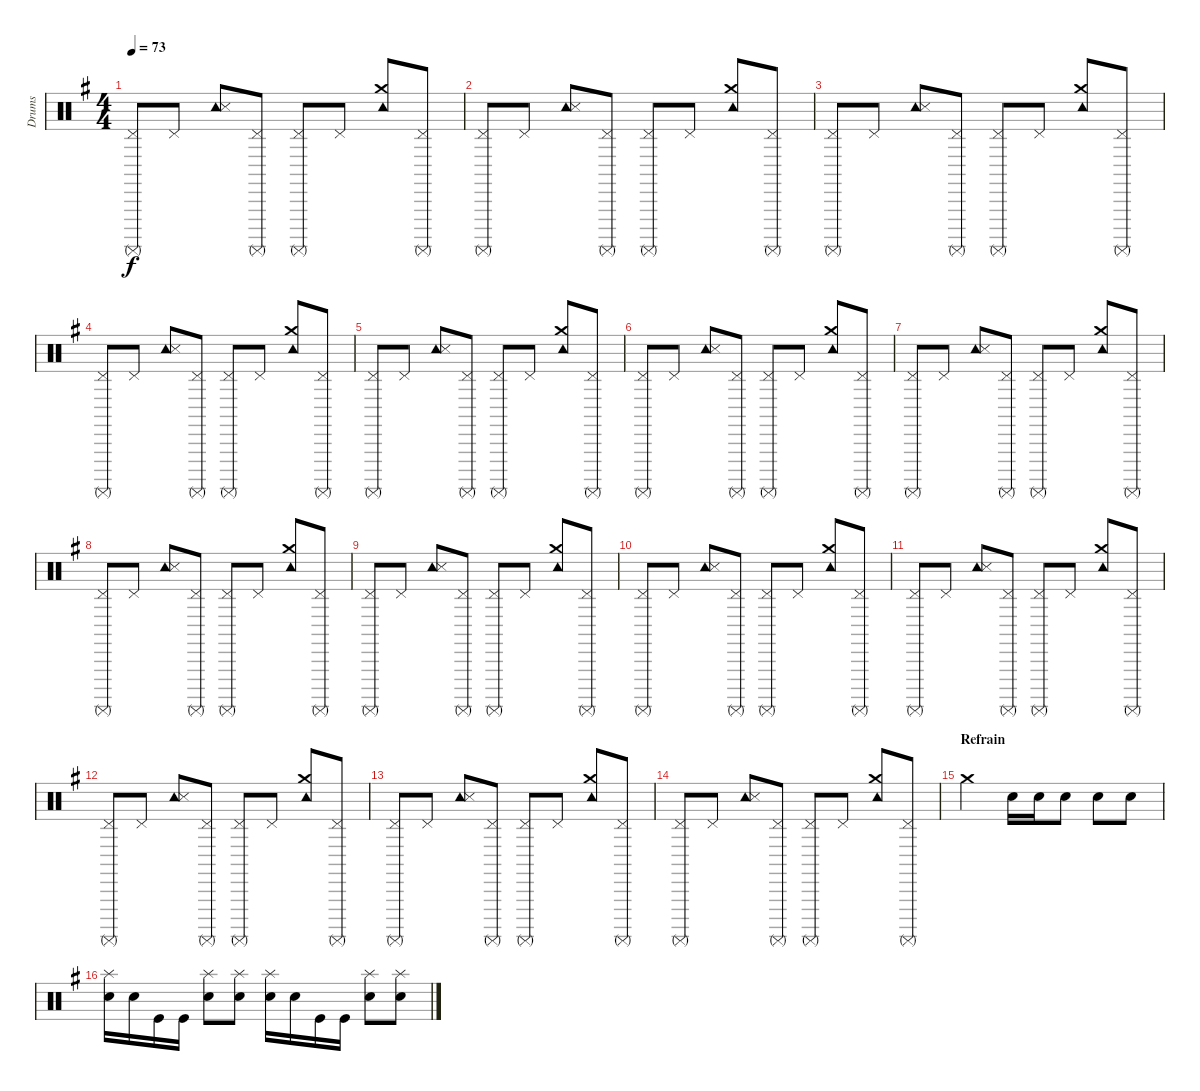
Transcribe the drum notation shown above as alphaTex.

\track ("Drums" "Drums") {instrument percussion}
\staff {score}
\articulation defaults
\ts (4 4)
\tempo 73
\clef neutral
\ks g
("Pedal Hi-Hat (hit)" "Surdo (mute)").8{dy f} "Pedal Hi-Hat (hit)".8 ("Tambourine (hit)" "Snare (side stick) 3").8 ("Pedal Hi-Hat (hit)" "Surdo (mute)").8 ("Pedal Hi-Hat (hit)" "Surdo (mute)").8 "Pedal Hi-Hat (hit)".8 ("Tambourine (hit)" "Crash medium (hit)").8 ("Pedal Hi-Hat (hit)" "Surdo (mute)").8 |
("Pedal Hi-Hat (hit)" "Surdo (mute)").8 "Pedal Hi-Hat (hit)".8 ("Tambourine (hit)" "Snare (side stick) 3").8 ("Pedal Hi-Hat (hit)" "Surdo (mute)").8 ("Pedal Hi-Hat (hit)" "Surdo (mute)").8 "Pedal Hi-Hat (hit)".8 ("Tambourine (hit)" "Crash medium (hit)").8 ("Pedal Hi-Hat (hit)" "Surdo (mute)").8 |
("Pedal Hi-Hat (hit)" "Surdo (mute)").8 "Pedal Hi-Hat (hit)".8 ("Tambourine (hit)" "Snare (side stick) 3").8 ("Pedal Hi-Hat (hit)" "Surdo (mute)").8 ("Pedal Hi-Hat (hit)" "Surdo (mute)").8 "Pedal Hi-Hat (hit)".8 ("Tambourine (hit)" "Crash medium (hit)").8 ("Pedal Hi-Hat (hit)" "Surdo (mute)").8 |
("Pedal Hi-Hat (hit)" "Surdo (mute)").8 "Pedal Hi-Hat (hit)".8 ("Tambourine (hit)" "Snare (side stick) 3").8 ("Pedal Hi-Hat (hit)" "Surdo (mute)").8 ("Pedal Hi-Hat (hit)" "Surdo (mute)").8 "Pedal Hi-Hat (hit)".8 ("Tambourine (hit)" "Crash medium (hit)").8 ("Pedal Hi-Hat (hit)" "Surdo (mute)").8 |
("Pedal Hi-Hat (hit)" "Surdo (mute)").8 "Pedal Hi-Hat (hit)".8 ("Tambourine (hit)" "Snare (side stick) 3").8 ("Pedal Hi-Hat (hit)" "Surdo (mute)").8 ("Pedal Hi-Hat (hit)" "Surdo (mute)").8 "Pedal Hi-Hat (hit)".8 ("Tambourine (hit)" "Crash medium (hit)").8 ("Pedal Hi-Hat (hit)" "Surdo (mute)").8 |
("Pedal Hi-Hat (hit)" "Surdo (mute)").8 "Pedal Hi-Hat (hit)".8 ("Tambourine (hit)" "Snare (side stick) 3").8 ("Pedal Hi-Hat (hit)" "Surdo (mute)").8 ("Pedal Hi-Hat (hit)" "Surdo (mute)").8 "Pedal Hi-Hat (hit)".8 ("Tambourine (hit)" "Crash medium (hit)").8 ("Pedal Hi-Hat (hit)" "Surdo (mute)").8 |
("Pedal Hi-Hat (hit)" "Surdo (mute)").8 "Pedal Hi-Hat (hit)".8 ("Tambourine (hit)" "Snare (side stick) 3").8 ("Pedal Hi-Hat (hit)" "Surdo (mute)").8 ("Pedal Hi-Hat (hit)" "Surdo (mute)").8 "Pedal Hi-Hat (hit)".8 ("Tambourine (hit)" "Crash medium (hit)").8 ("Pedal Hi-Hat (hit)" "Surdo (mute)").8 |
("Pedal Hi-Hat (hit)" "Surdo (mute)").8 "Pedal Hi-Hat (hit)".8 ("Tambourine (hit)" "Snare (side stick) 3").8 ("Pedal Hi-Hat (hit)" "Surdo (mute)").8 ("Pedal Hi-Hat (hit)" "Surdo (mute)").8 "Pedal Hi-Hat (hit)".8 ("Tambourine (hit)" "Crash medium (hit)").8 ("Pedal Hi-Hat (hit)" "Surdo (mute)").8 |
("Pedal Hi-Hat (hit)" "Surdo (mute)").8 "Pedal Hi-Hat (hit)".8 ("Tambourine (hit)" "Snare (side stick) 3").8 ("Pedal Hi-Hat (hit)" "Surdo (mute)").8 ("Pedal Hi-Hat (hit)" "Surdo (mute)").8 "Pedal Hi-Hat (hit)".8 ("Tambourine (hit)" "Crash medium (hit)").8 ("Pedal Hi-Hat (hit)" "Surdo (mute)").8 |
("Pedal Hi-Hat (hit)" "Surdo (mute)").8 "Pedal Hi-Hat (hit)".8 ("Tambourine (hit)" "Snare (side stick) 3").8 ("Pedal Hi-Hat (hit)" "Surdo (mute)").8 ("Pedal Hi-Hat (hit)" "Surdo (mute)").8 "Pedal Hi-Hat (hit)".8 ("Tambourine (hit)" "Crash medium (hit)").8 ("Pedal Hi-Hat (hit)" "Surdo (mute)").8 |
("Pedal Hi-Hat (hit)" "Surdo (mute)").8 "Pedal Hi-Hat (hit)".8 ("Tambourine (hit)" "Snare (side stick) 3").8 ("Pedal Hi-Hat (hit)" "Surdo (mute)").8 ("Pedal Hi-Hat (hit)" "Surdo (mute)").8 "Pedal Hi-Hat (hit)".8 ("Tambourine (hit)" "Crash medium (hit)").8 ("Pedal Hi-Hat (hit)" "Surdo (mute)").8 |
("Pedal Hi-Hat (hit)" "Surdo (mute)").8 "Pedal Hi-Hat (hit)".8 ("Tambourine (hit)" "Snare (side stick) 3").8 ("Pedal Hi-Hat (hit)" "Surdo (mute)").8 ("Pedal Hi-Hat (hit)" "Surdo (mute)").8 "Pedal Hi-Hat (hit)".8 ("Tambourine (hit)" "Crash medium (hit)").8 ("Pedal Hi-Hat (hit)" "Surdo (mute)").8 |
("Pedal Hi-Hat (hit)" "Surdo (mute)").8 "Pedal Hi-Hat (hit)".8 ("Tambourine (hit)" "Snare (side stick) 3").8 ("Pedal Hi-Hat (hit)" "Surdo (mute)").8 ("Pedal Hi-Hat (hit)" "Surdo (mute)").8 "Pedal Hi-Hat (hit)".8 ("Tambourine (hit)" "Crash medium (hit)").8 ("Pedal Hi-Hat (hit)" "Surdo (mute)").8 |
("Pedal Hi-Hat (hit)" "Surdo (mute)").8 "Pedal Hi-Hat (hit)".8 ("Tambourine (hit)" "Snare (side stick) 3").8 ("Pedal Hi-Hat (hit)" "Surdo (mute)").8 ("Pedal Hi-Hat (hit)" "Surdo (mute)").8 "Pedal Hi-Hat (hit)".8 ("Tambourine (hit)" "Crash medium (hit)").8 ("Pedal Hi-Hat (hit)" "Surdo (mute)").8 |
\section ("" "Refrain")
"Crash medium (hit)".2 "Electric Snare (hit)".16 "Electric Snare (hit)".16 "Electric Snare (hit)".8 "Electric Snare (hit)".8 "Electric Snare (hit)".8 |
("Splash (hit)" "Electric Snare (hit)").16 "Electric Snare (hit)".16 "Kick (hit)".16 "Kick (hit)".16 ("Splash (hit)" "Electric Snare (hit)").8 ("Splash (hit)" "Electric Snare (hit)").8 ("Splash (hit)" "Electric Snare (hit)").16 "Electric Snare (hit)".16 "Kick (hit)".16 "Kick (hit)".16 ("Splash (hit)" "Electric Snare (hit)").8 ("Splash (hit)" "Electric Snare (hit)").8
